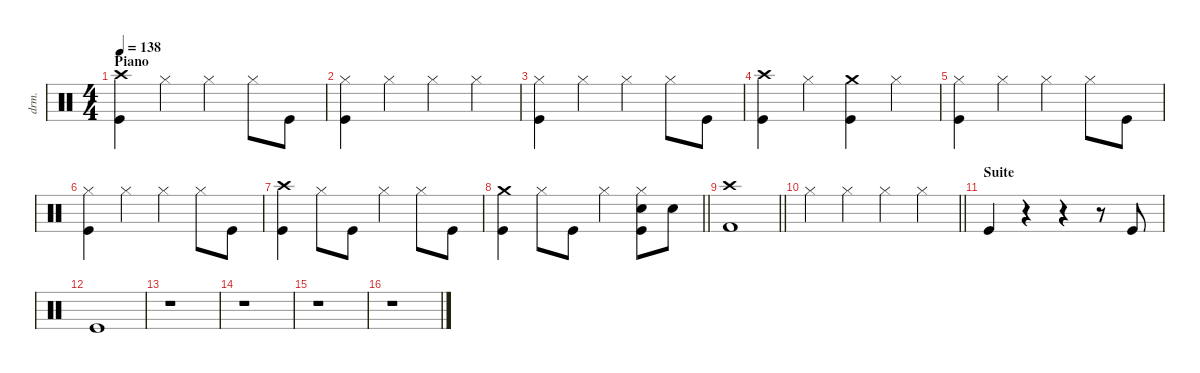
\defaultSystemsLayout 4
\hideDynamics
\bracketExtendMode nobrackets
\track ("Percussions" "drm.") {instrument percussion}
\staff {score}
\articulation defaults
\ts (4 4)
\section ("" "Piano")
\tempo 138
\clef neutral
\ks aminor
("Crash high (hit)" "Kick (hit)").4{dy f beam Down} "Hi-Hat (closed)".4{beam Down} "Hi-Hat (closed)".4{beam Down} "Hi-Hat (closed)".8{beam Down} "Kick (hit)".8{beam Down} |
("Hi-Hat (closed)" "Kick (hit)").4{beam Down} "Hi-Hat (closed)".4{beam Down} "Hi-Hat (closed)".4{beam Down} "Hi-Hat (closed)".4{beam Down} |
("Hi-Hat (closed)" "Kick (hit)").4{beam Down} "Hi-Hat (closed)".4{beam Down} "Hi-Hat (closed)".4{beam Down} "Hi-Hat (closed)".8{beam Down} "Kick (hit)".8{beam Down} |
("Crash high (hit)" "Kick (hit)").4{beam Down} "Hi-Hat (closed)".4{beam Down} ("Crash medium (hit)" "Kick (hit)").4{beam Down} "Hi-Hat (closed)".4{beam Down} |
("Hi-Hat (closed)" "Kick (hit)").4{beam Down} "Hi-Hat (closed)".4{beam Down} "Hi-Hat (closed)".4{beam Down} "Hi-Hat (closed)".8{beam Down} "Kick (hit)".8{beam Down} |
("Hi-Hat (closed)" "Kick (hit)").4{beam Down} "Hi-Hat (closed)".4{beam Down} "Hi-Hat (closed)".4{beam Down} "Hi-Hat (closed)".8{beam Down} "Kick (hit)".8{beam Down} |
("Crash high (hit)" "Kick (hit)").4{beam Down} "Hi-Hat (closed)".8{beam Down} "Kick (hit)".8{beam Down} "Hi-Hat (closed)".4{beam Down} "Hi-Hat (closed)".8{beam Down} "Kick (hit)".8{beam Down} |
\barLineRight lightlight
("Crash medium (hit)" "Kick (hit)").4{beam Down} "Hi-Hat (closed)".8{beam Down} "Kick (hit)".8{beam Down} "Hi-Hat (closed)".4{beam Down} ("Hi-Hat (closed)" "Snare (hit) 2" "Kick (hit)").8{beam Down} "Snare (hit) 2".8{beam Down} |
\barLineRight lightlight
("Crash high (hit)" "Kick (hit) 2").1{beam Down} |
\barLineRight lightlight "Hi-Hat (closed)".4{beam Down} "Hi-Hat (closed)".4{beam Down} "Hi-Hat (closed)".4{beam Down} "Hi-Hat (closed)".4{beam Down}
|
\section ("" "Suite")
"Kick (hit)".4 r.4 r.4 r.8 "Kick (hit)".8 |
"Kick (hit)".1 |
r.1 |
r.1 |
r.1 |
r.1
